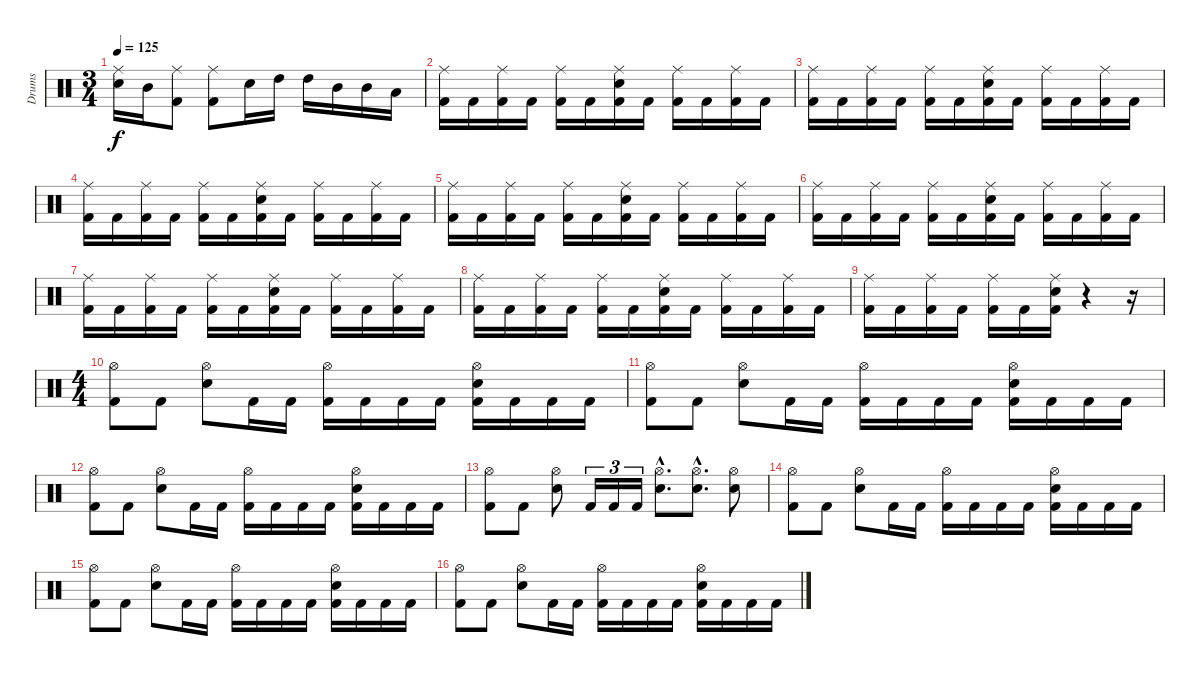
\track ("Drums" "Drums") {instrument percussion}
\staff {score}
\articulation defaults
\ts (3 4)
\tempo 125
\clef neutral
\ks c
("Ride (middle)" "Electric Snare (hit)").16{dy f} "Mid Tom (hit)".16 ("Ride (middle)" "Kick (hit) 2").8 ("Ride (middle)" "Kick (hit) 2").8 "Electric Snare (hit)".16 "High Tom (hit)".16 "High Tom (hit)".16 "Mid Tom (hit)".16 "Mid Tom (hit)".16 "Low Tom (hit)".16 |
("Ride (middle)" "Kick (hit) 2").16 "Kick (hit) 2".16 ("Ride (middle)" "Kick (hit) 2").16 "Kick (hit) 2".16 ("Ride (middle)" "Kick (hit) 2").16 "Kick (hit) 2".16 ("Ride (middle)" "Electric Snare (hit)" "Kick (hit) 2").16 "Kick (hit) 2".16 ("Ride (middle)" "Kick (hit) 2").16 "Kick (hit) 2".16 ("Ride (middle)" "Kick (hit) 2").16 "Kick (hit) 2".16 |
("Ride (middle)" "Kick (hit) 2").16 "Kick (hit) 2".16 ("Ride (middle)" "Kick (hit) 2").16 "Kick (hit) 2".16 ("Ride (middle)" "Kick (hit) 2").16 "Kick (hit) 2".16 ("Ride (middle)" "Electric Snare (hit)" "Kick (hit) 2").16 "Kick (hit) 2".16 ("Ride (middle)" "Kick (hit) 2").16 "Kick (hit) 2".16 ("Ride (middle)" "Kick (hit) 2").16 "Kick (hit) 2".16 |
("Ride (middle)" "Kick (hit) 2").16 "Kick (hit) 2".16 ("Ride (middle)" "Kick (hit) 2").16 "Kick (hit) 2".16 ("Ride (middle)" "Kick (hit) 2").16 "Kick (hit) 2".16 ("Ride (middle)" "Electric Snare (hit)" "Kick (hit) 2").16 "Kick (hit) 2".16 ("Ride (middle)" "Kick (hit) 2").16 "Kick (hit) 2".16 ("Ride (middle)" "Kick (hit) 2").16 "Kick (hit) 2".16 |
("Ride (middle)" "Kick (hit) 2").16 "Kick (hit) 2".16 ("Ride (middle)" "Kick (hit) 2").16 "Kick (hit) 2".16 ("Ride (middle)" "Kick (hit) 2").16 "Kick (hit) 2".16 ("Ride (middle)" "Electric Snare (hit)" "Kick (hit) 2").16 "Kick (hit) 2".16 ("Ride (middle)" "Kick (hit) 2").16 "Kick (hit) 2".16 ("Ride (middle)" "Kick (hit) 2").16 "Kick (hit) 2".16 |
("Ride (middle)" "Kick (hit) 2").16 "Kick (hit) 2".16 ("Ride (middle)" "Kick (hit) 2").16 "Kick (hit) 2".16 ("Ride (middle)" "Kick (hit) 2").16 "Kick (hit) 2".16 ("Ride (middle)" "Electric Snare (hit)" "Kick (hit) 2").16 "Kick (hit) 2".16 ("Ride (middle)" "Kick (hit) 2").16 "Kick (hit) 2".16 ("Ride (middle)" "Kick (hit) 2").16 "Kick (hit) 2".16 |
("Ride (middle)" "Kick (hit) 2").16 "Kick (hit) 2".16 ("Ride (middle)" "Kick (hit) 2").16 "Kick (hit) 2".16 ("Ride (middle)" "Kick (hit) 2").16 "Kick (hit) 2".16 ("Ride (middle)" "Electric Snare (hit)" "Kick (hit) 2").16 "Kick (hit) 2".16 ("Ride (middle)" "Kick (hit) 2").16 "Kick (hit) 2".16 ("Ride (middle)" "Kick (hit) 2").16 "Kick (hit) 2".16 |
("Ride (middle)" "Kick (hit) 2").16 "Kick (hit) 2".16 ("Ride (middle)" "Kick (hit) 2").16 "Kick (hit) 2".16 ("Ride (middle)" "Kick (hit) 2").16 "Kick (hit) 2".16 ("Ride (middle)" "Electric Snare (hit)" "Kick (hit) 2").16 "Kick (hit) 2".16 ("Ride (middle)" "Kick (hit) 2").16 "Kick (hit) 2".16 ("Ride (middle)" "Kick (hit) 2").16 "Kick (hit) 2".16 |
("Ride (middle)" "Kick (hit) 2").16 "Kick (hit) 2".16 ("Ride (middle)" "Kick (hit) 2").16 "Kick (hit) 2".16 ("Ride (middle)" "Kick (hit) 2").16 "Kick (hit) 2".16 ("Ride (middle)" "Electric Snare (hit)" "Kick (hit) 2").16 r.4 r.16 |
\ts (4 4)
("Hi-Hat (open)" "Kick (hit) 2").8 "Kick (hit) 2".8 ("Hi-Hat (open)" "Electric Snare (hit)").8 "Kick (hit) 2".16 "Kick (hit) 2".16 ("Hi-Hat (open)" "Kick (hit) 2").16 "Kick (hit) 2".16 "Kick (hit) 2".16 "Kick (hit) 2".16 ("Hi-Hat (open)" "Electric Snare (hit)" "Kick (hit) 2").16 "Kick (hit) 2".16 "Kick (hit) 2".16 "Kick (hit) 2".16 |
("Hi-Hat (open)" "Kick (hit) 2").8 "Kick (hit) 2".8 ("Hi-Hat (open)" "Electric Snare (hit)").8 "Kick (hit) 2".16 "Kick (hit) 2".16 ("Hi-Hat (open)" "Kick (hit) 2").16 "Kick (hit) 2".16 "Kick (hit) 2".16 "Kick (hit) 2".16 ("Hi-Hat (open)" "Electric Snare (hit)" "Kick (hit) 2").16 "Kick (hit) 2".16 "Kick (hit) 2".16 "Kick (hit) 2".16 |
("Hi-Hat (open)" "Kick (hit) 2").8 "Kick (hit) 2".8 ("Hi-Hat (open)" "Electric Snare (hit)").8 "Kick (hit) 2".16 "Kick (hit) 2".16 ("Hi-Hat (open)" "Kick (hit) 2").16 "Kick (hit) 2".16 "Kick (hit) 2".16 "Kick (hit) 2".16 ("Hi-Hat (open)" "Electric Snare (hit)" "Kick (hit) 2").16 "Kick (hit) 2".16 "Kick (hit) 2".16 "Kick (hit) 2".16 |
("Hi-Hat (open)" "Kick (hit) 2").8 "Kick (hit) 2".8 ("Hi-Hat (open)" "Electric Snare (hit)").8 "Kick (hit) 2".16{tu (3 2)} "Kick (hit) 2".16{tu (3 2)} "Kick (hit) 2".16{tu (3 2)} ("Hi-Hat (open)"{hac} "Electric Snare (hit)"{hac}).8{d} ("Hi-Hat (open)"{hac} "Electric Snare (hit)"{hac}).8{d} ("Hi-Hat (open)" "Electric Snare (hit)").8 |
("Hi-Hat (open)" "Kick (hit) 2").8 "Kick (hit) 2".8 ("Hi-Hat (open)" "Electric Snare (hit)").8 "Kick (hit) 2".16 "Kick (hit) 2".16 ("Hi-Hat (open)" "Kick (hit) 2").16 "Kick (hit) 2".16 "Kick (hit) 2".16 "Kick (hit) 2".16 ("Hi-Hat (open)" "Electric Snare (hit)" "Kick (hit) 2").16 "Kick (hit) 2".16 "Kick (hit) 2".16 "Kick (hit) 2".16 |
("Hi-Hat (open)" "Kick (hit) 2").8 "Kick (hit) 2".8 ("Hi-Hat (open)" "Electric Snare (hit)").8 "Kick (hit) 2".16 "Kick (hit) 2".16 ("Hi-Hat (open)" "Kick (hit) 2").16 "Kick (hit) 2".16 "Kick (hit) 2".16 "Kick (hit) 2".16 ("Hi-Hat (open)" "Electric Snare (hit)" "Kick (hit) 2").16 "Kick (hit) 2".16 "Kick (hit) 2".16 "Kick (hit) 2".16 |
("Hi-Hat (open)" "Kick (hit) 2").8 "Kick (hit) 2".8 ("Hi-Hat (open)" "Electric Snare (hit)").8 "Kick (hit) 2".16 "Kick (hit) 2".16 ("Hi-Hat (open)" "Kick (hit) 2").16 "Kick (hit) 2".16 "Kick (hit) 2".16 "Kick (hit) 2".16 ("Hi-Hat (open)" "Electric Snare (hit)" "Kick (hit) 2").16 "Kick (hit) 2".16 "Kick (hit) 2".16 "Kick (hit) 2".16
